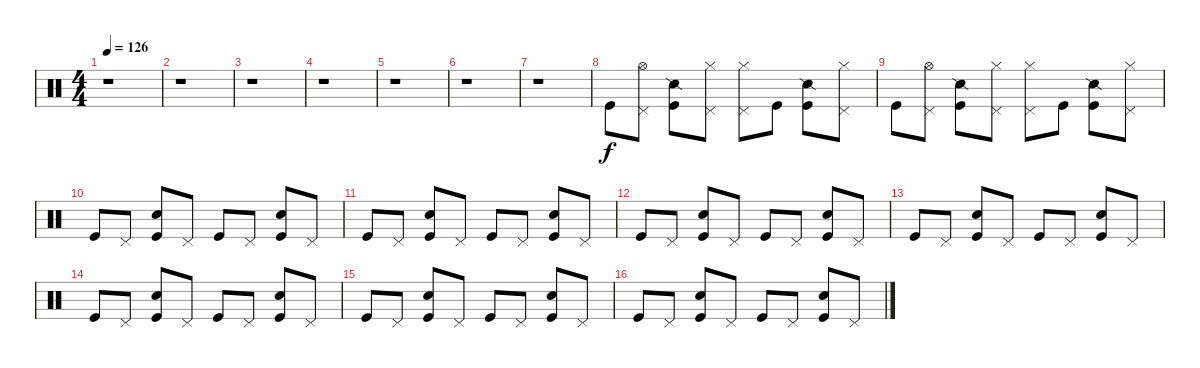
\track "" {instrument percussion}
\staff {score}
\articulation defaults
\ts (4 4)
\tempo 126
\clef neutral
\ks c
r.1{dy f} |
r.1 |
r.1 |
r.1 |
r.1 |
r.1 |
r.1 |
"Kick (hit)".8 ("Hi-Hat (open)" "Pedal Hi-Hat (hit)").8 ("Kick (hit)" "Snare (side stick) 2").8 ("Hi-Hat (closed)" "Pedal Hi-Hat (hit)").8 ("Hi-Hat (closed)" "Pedal Hi-Hat (hit)").8 "Kick (hit)".8 ("Kick (hit)" "Snare (side stick) 2").8 ("Hi-Hat (closed)" "Pedal Hi-Hat (hit)").8 |
"Kick (hit)".8 ("Hi-Hat (open)" "Pedal Hi-Hat (hit)").8 ("Kick (hit)" "Snare (side stick) 2").8 ("Hi-Hat (closed)" "Pedal Hi-Hat (hit)").8 ("Hi-Hat (closed)" "Pedal Hi-Hat (hit)").8 "Kick (hit)".8 ("Kick (hit)" "Snare (side stick) 2").8 ("Hi-Hat (closed)" "Pedal Hi-Hat (hit)").8 |
"Kick (hit)".8 "Pedal Hi-Hat (hit)".8 ("Kick (hit)" "Hand Clap (hit)").8 "Pedal Hi-Hat (hit)".8 "Kick (hit)".8 "Pedal Hi-Hat (hit)".8 ("Kick (hit)" "Hand Clap (hit)").8 "Pedal Hi-Hat (hit)".8 |
"Kick (hit)".8 "Pedal Hi-Hat (hit)".8 ("Kick (hit)" "Hand Clap (hit)").8 "Pedal Hi-Hat (hit)".8 "Kick (hit)".8 "Pedal Hi-Hat (hit)".8 ("Kick (hit)" "Hand Clap (hit)").8 "Pedal Hi-Hat (hit)".8 |
"Kick (hit)".8 "Pedal Hi-Hat (hit)".8 ("Kick (hit)" "Hand Clap (hit)").8 "Pedal Hi-Hat (hit)".8 "Kick (hit)".8 "Pedal Hi-Hat (hit)".8 ("Kick (hit)" "Hand Clap (hit)").8 "Pedal Hi-Hat (hit)".8 |
"Kick (hit)".8 "Pedal Hi-Hat (hit)".8 ("Kick (hit)" "Hand Clap (hit)").8 "Pedal Hi-Hat (hit)".8 "Kick (hit)".8 "Pedal Hi-Hat (hit)".8 ("Kick (hit)" "Hand Clap (hit)").8 "Pedal Hi-Hat (hit)".8 |
"Kick (hit)".8 "Pedal Hi-Hat (hit)".8 ("Kick (hit)" "Hand Clap (hit)").8 "Pedal Hi-Hat (hit)".8 "Kick (hit)".8 "Pedal Hi-Hat (hit)".8 ("Kick (hit)" "Hand Clap (hit)").8 "Pedal Hi-Hat (hit)".8 |
"Kick (hit)".8 "Pedal Hi-Hat (hit)".8 ("Kick (hit)" "Hand Clap (hit)").8 "Pedal Hi-Hat (hit)".8 "Kick (hit)".8 "Pedal Hi-Hat (hit)".8 ("Kick (hit)" "Hand Clap (hit)").8 "Pedal Hi-Hat (hit)".8 |
"Kick (hit)".8 "Pedal Hi-Hat (hit)".8 ("Kick (hit)" "Hand Clap (hit)").8 "Pedal Hi-Hat (hit)".8 "Kick (hit)".8 "Pedal Hi-Hat (hit)".8 ("Kick (hit)" "Hand Clap (hit)").8 "Pedal Hi-Hat (hit)".8
